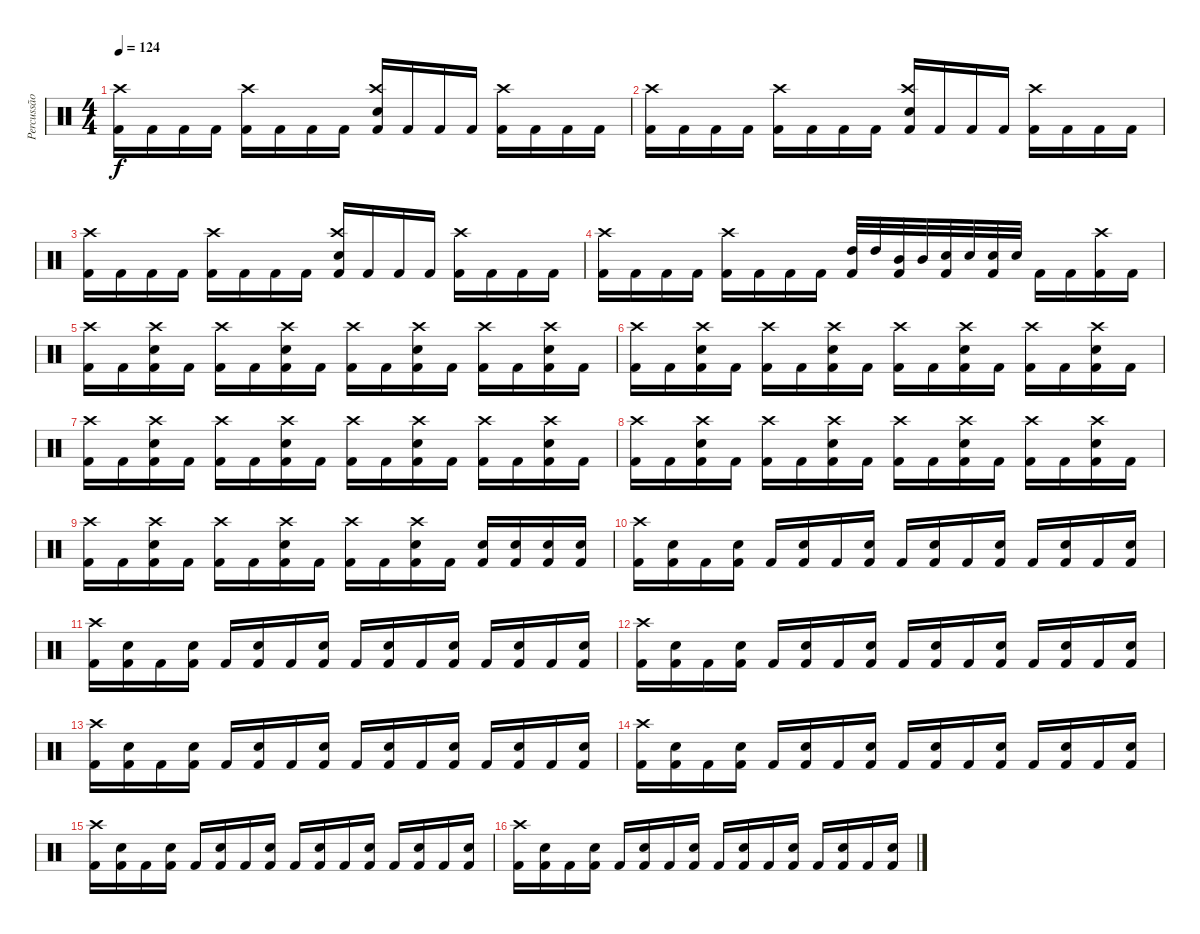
\track ("Percussão" "Percussão") {instrument percussion}
\staff {score}
\articulation defaults
\ts (4 4)
\tempo 124
\clef neutral
\ks c
("Kick (hit) 2" "Crash high (hit)").16{dy f} "Kick (hit) 2".16 "Kick (hit) 2".16 "Kick (hit) 2".16 ("Kick (hit) 2" "Crash high (hit)").16 "Kick (hit) 2".16 "Kick (hit) 2".16 "Kick (hit) 2".16 ("Kick (hit) 2" "Electric Snare (hit)" "Crash high (hit)").16 "Kick (hit) 2".16 "Kick (hit) 2".16 "Kick (hit) 2".16 ("Kick (hit) 2" "Crash high (hit)").16 "Kick (hit) 2".16 "Kick (hit) 2".16 "Kick (hit) 2".16 |
("Kick (hit) 2" "Crash high (hit)").16 "Kick (hit) 2".16 "Kick (hit) 2".16 "Kick (hit) 2".16 ("Kick (hit) 2" "Crash high (hit)").16 "Kick (hit) 2".16 "Kick (hit) 2".16 "Kick (hit) 2".16 ("Kick (hit) 2" "Electric Snare (hit)" "Crash high (hit)").16 "Kick (hit) 2".16 "Kick (hit) 2".16 "Kick (hit) 2".16 ("Kick (hit) 2" "Crash high (hit)").16 "Kick (hit) 2".16 "Kick (hit) 2".16 "Kick (hit) 2".16 |
("Kick (hit) 2" "Crash high (hit)").16 "Kick (hit) 2".16 "Kick (hit) 2".16 "Kick (hit) 2".16 ("Kick (hit) 2" "Crash high (hit)").16 "Kick (hit) 2".16 "Kick (hit) 2".16 "Kick (hit) 2".16 ("Kick (hit) 2" "Electric Snare (hit)" "Crash high (hit)").16 "Kick (hit) 2".16 "Kick (hit) 2".16 "Kick (hit) 2".16 ("Kick (hit) 2" "Crash high (hit)").16 "Kick (hit) 2".16 "Kick (hit) 2".16 "Kick (hit) 2".16 |
("Kick (hit) 2" "Crash high (hit)").16 "Kick (hit) 2".16 "Kick (hit) 2".16 "Kick (hit) 2".16 ("Kick (hit) 2" "Crash high (hit)").16 "Kick (hit) 2".16 "Kick (hit) 2".16 "Kick (hit) 2".16 ("Kick (hit) 2" "High Tom (hit)").32 "High Tom (hit)".32 ("Kick (hit) 2" "Mid Tom (hit)").32 "Mid Tom (hit)".32 ("Kick (hit) 2" "Electric Snare (hit)").32 "Electric Snare (hit)".32 ("Kick (hit) 2" "Electric Snare (hit)").32 "Electric Snare (hit)".32 "Kick (hit) 2".16 "Kick (hit) 2".16 ("Kick (hit) 2" "Crash high (hit)").16 "Kick (hit) 2".16 |
("Kick (hit) 2" "Crash high (hit)").16 "Kick (hit) 2".16 ("Kick (hit) 2" "Electric Snare (hit)" "Crash high (hit)").16 "Kick (hit) 2".16 ("Kick (hit) 2" "Crash high (hit)").16 "Kick (hit) 2".16 ("Kick (hit) 2" "Electric Snare (hit)" "Crash high (hit)").16 "Kick (hit) 2".16 ("Kick (hit) 2" "Crash high (hit)").16 "Kick (hit) 2".16 ("Kick (hit) 2" "Electric Snare (hit)" "Crash high (hit)").16 "Kick (hit) 2".16 ("Kick (hit) 2" "Crash high (hit)").16 "Kick (hit) 2".16 ("Kick (hit) 2" "Electric Snare (hit)" "Crash high (hit)").16 "Kick (hit) 2".16 |
("Kick (hit) 2" "Crash high (hit)").16 "Kick (hit) 2".16 ("Kick (hit) 2" "Electric Snare (hit)" "Crash high (hit)").16 "Kick (hit) 2".16 ("Kick (hit) 2" "Crash high (hit)").16 "Kick (hit) 2".16 ("Kick (hit) 2" "Electric Snare (hit)" "Crash high (hit)").16 "Kick (hit) 2".16 ("Kick (hit) 2" "Crash high (hit)").16 "Kick (hit) 2".16 ("Kick (hit) 2" "Electric Snare (hit)" "Crash high (hit)").16 "Kick (hit) 2".16 ("Kick (hit) 2" "Crash high (hit)").16 "Kick (hit) 2".16 ("Kick (hit) 2" "Electric Snare (hit)" "Crash high (hit)").16 "Kick (hit) 2".16 |
("Kick (hit) 2" "Crash high (hit)").16 "Kick (hit) 2".16 ("Kick (hit) 2" "Electric Snare (hit)" "Crash high (hit)").16 "Kick (hit) 2".16 ("Kick (hit) 2" "Crash high (hit)").16 "Kick (hit) 2".16 ("Kick (hit) 2" "Electric Snare (hit)" "Crash high (hit)").16 "Kick (hit) 2".16 ("Kick (hit) 2" "Crash high (hit)").16 "Kick (hit) 2".16 ("Kick (hit) 2" "Electric Snare (hit)" "Crash high (hit)").16 "Kick (hit) 2".16 ("Kick (hit) 2" "Crash high (hit)").16 "Kick (hit) 2".16 ("Kick (hit) 2" "Electric Snare (hit)" "Crash high (hit)").16 "Kick (hit) 2".16 |
("Kick (hit) 2" "Crash high (hit)").16 "Kick (hit) 2".16 ("Kick (hit) 2" "Electric Snare (hit)" "Crash high (hit)").16 "Kick (hit) 2".16 ("Kick (hit) 2" "Crash high (hit)").16 "Kick (hit) 2".16 ("Kick (hit) 2" "Electric Snare (hit)" "Crash high (hit)").16 "Kick (hit) 2".16 ("Kick (hit) 2" "Crash high (hit)").16 "Kick (hit) 2".16 ("Kick (hit) 2" "Electric Snare (hit)" "Crash high (hit)").16 "Kick (hit) 2".16 ("Kick (hit) 2" "Crash high (hit)").16 "Kick (hit) 2".16 ("Kick (hit) 2" "Electric Snare (hit)" "Crash high (hit)").16 "Kick (hit) 2".16 |
("Kick (hit) 2" "Crash high (hit)").16 "Kick (hit) 2".16 ("Kick (hit) 2" "Electric Snare (hit)" "Crash high (hit)").16 "Kick (hit) 2".16 ("Kick (hit) 2" "Crash high (hit)").16 "Kick (hit) 2".16 ("Kick (hit) 2" "Electric Snare (hit)" "Crash high (hit)").16 "Kick (hit) 2".16 ("Kick (hit) 2" "Crash high (hit)").16 "Kick (hit) 2".16 ("Kick (hit) 2" "Electric Snare (hit)" "Crash high (hit)").16 "Kick (hit) 2".16 ("Kick (hit) 2" "Electric Snare (hit)").16 ("Kick (hit) 2" "Electric Snare (hit)").16 ("Kick (hit) 2" "Electric Snare (hit)").16 ("Kick (hit) 2" "Electric Snare (hit)").16 |
("Kick (hit) 2" "Crash high (hit)").16 ("Kick (hit) 2" "Electric Snare (hit)").16 "Kick (hit) 2".16 ("Kick (hit) 2" "Electric Snare (hit)").16 "Kick (hit) 2".16 ("Kick (hit) 2" "Electric Snare (hit)").16 "Kick (hit) 2".16 ("Kick (hit) 2" "Electric Snare (hit)").16 "Kick (hit) 2".16 ("Kick (hit) 2" "Electric Snare (hit)").16 "Kick (hit) 2".16 ("Kick (hit) 2" "Electric Snare (hit)").16 "Kick (hit) 2".16 ("Kick (hit) 2" "Electric Snare (hit)").16 "Kick (hit) 2".16 ("Kick (hit) 2" "Electric Snare (hit)").16 |
("Kick (hit) 2" "Crash high (hit)").16 ("Kick (hit) 2" "Electric Snare (hit)").16 "Kick (hit) 2".16 ("Kick (hit) 2" "Electric Snare (hit)").16 "Kick (hit) 2".16 ("Kick (hit) 2" "Electric Snare (hit)").16 "Kick (hit) 2".16 ("Kick (hit) 2" "Electric Snare (hit)").16 "Kick (hit) 2".16 ("Kick (hit) 2" "Electric Snare (hit)").16 "Kick (hit) 2".16 ("Kick (hit) 2" "Electric Snare (hit)").16 "Kick (hit) 2".16 ("Kick (hit) 2" "Electric Snare (hit)").16 "Kick (hit) 2".16 ("Kick (hit) 2" "Electric Snare (hit)").16 |
("Kick (hit) 2" "Crash high (hit)").16 ("Kick (hit) 2" "Electric Snare (hit)").16 "Kick (hit) 2".16 ("Kick (hit) 2" "Electric Snare (hit)").16 "Kick (hit) 2".16 ("Kick (hit) 2" "Electric Snare (hit)").16 "Kick (hit) 2".16 ("Kick (hit) 2" "Electric Snare (hit)").16 "Kick (hit) 2".16 ("Kick (hit) 2" "Electric Snare (hit)").16 "Kick (hit) 2".16 ("Kick (hit) 2" "Electric Snare (hit)").16 "Kick (hit) 2".16 ("Kick (hit) 2" "Electric Snare (hit)").16 "Kick (hit) 2".16 ("Kick (hit) 2" "Electric Snare (hit)").16 |
("Kick (hit) 2" "Crash high (hit)").16 ("Kick (hit) 2" "Electric Snare (hit)").16 "Kick (hit) 2".16 ("Kick (hit) 2" "Electric Snare (hit)").16 "Kick (hit) 2".16 ("Kick (hit) 2" "Electric Snare (hit)").16 "Kick (hit) 2".16 ("Kick (hit) 2" "Electric Snare (hit)").16 "Kick (hit) 2".16 ("Kick (hit) 2" "Electric Snare (hit)").16 "Kick (hit) 2".16 ("Kick (hit) 2" "Electric Snare (hit)").16 "Kick (hit) 2".16 ("Kick (hit) 2" "Electric Snare (hit)").16 "Kick (hit) 2".16 ("Kick (hit) 2" "Electric Snare (hit)").16 |
("Kick (hit) 2" "Crash high (hit)").16 ("Kick (hit) 2" "Electric Snare (hit)").16 "Kick (hit) 2".16 ("Kick (hit) 2" "Electric Snare (hit)").16 "Kick (hit) 2".16 ("Kick (hit) 2" "Electric Snare (hit)").16 "Kick (hit) 2".16 ("Kick (hit) 2" "Electric Snare (hit)").16 "Kick (hit) 2".16 ("Kick (hit) 2" "Electric Snare (hit)").16 "Kick (hit) 2".16 ("Kick (hit) 2" "Electric Snare (hit)").16 "Kick (hit) 2".16 ("Kick (hit) 2" "Electric Snare (hit)").16 "Kick (hit) 2".16 ("Kick (hit) 2" "Electric Snare (hit)").16 |
("Kick (hit) 2" "Crash high (hit)").16 ("Kick (hit) 2" "Electric Snare (hit)").16 "Kick (hit) 2".16 ("Kick (hit) 2" "Electric Snare (hit)").16 "Kick (hit) 2".16 ("Kick (hit) 2" "Electric Snare (hit)").16 "Kick (hit) 2".16 ("Kick (hit) 2" "Electric Snare (hit)").16 "Kick (hit) 2".16 ("Kick (hit) 2" "Electric Snare (hit)").16 "Kick (hit) 2".16 ("Kick (hit) 2" "Electric Snare (hit)").16 "Kick (hit) 2".16 ("Kick (hit) 2" "Electric Snare (hit)").16 "Kick (hit) 2".16 ("Kick (hit) 2" "Electric Snare (hit)").16 |
("Kick (hit) 2" "Crash high (hit)").16 ("Kick (hit) 2" "Electric Snare (hit)").16 "Kick (hit) 2".16 ("Kick (hit) 2" "Electric Snare (hit)").16 "Kick (hit) 2".16 ("Kick (hit) 2" "Electric Snare (hit)").16 "Kick (hit) 2".16 ("Kick (hit) 2" "Electric Snare (hit)").16 "Kick (hit) 2".16 ("Kick (hit) 2" "Electric Snare (hit)").16 "Kick (hit) 2".16 ("Kick (hit) 2" "Electric Snare (hit)").16 "Kick (hit) 2".16 ("Kick (hit) 2" "Electric Snare (hit)").16 "Kick (hit) 2".16 ("Kick (hit) 2" "Electric Snare (hit)").16
